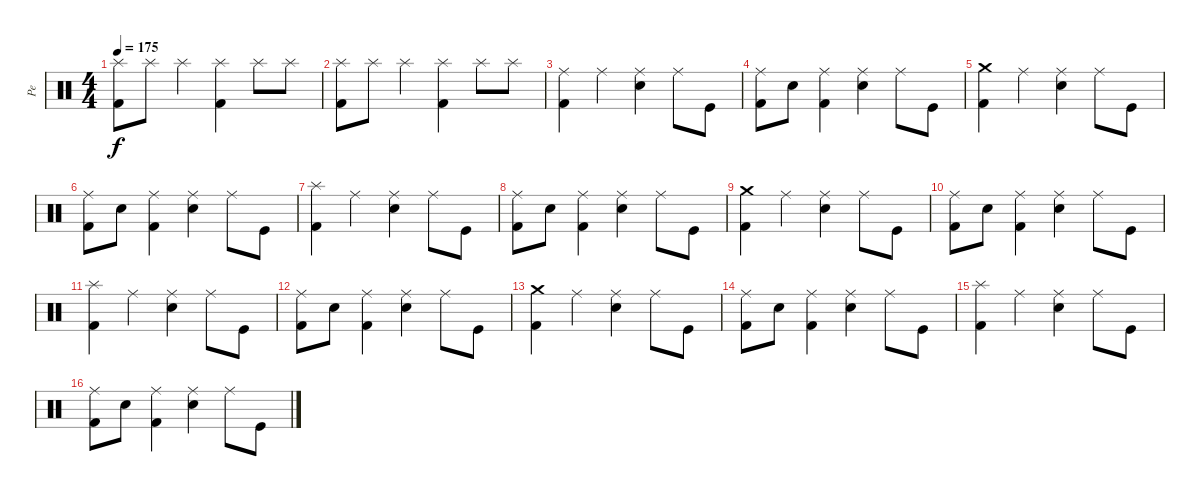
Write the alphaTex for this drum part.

\track ("Pe" "Pe") {instrument percussion}
\staff {score}
\articulation defaults
\ts (4 4)
\tempo 175
\clef neutral
\ks c
("Kick (hit) 2" "Splash (hit)").8{dy f} "Splash (hit)".8 "Splash (hit)".4 ("Kick (hit) 2" "Splash (hit)").4 "Splash (hit)".8 "Splash (hit)".8 |
("Kick (hit) 2" "Splash (hit)").8 "Splash (hit)".8 "Splash (hit)".4 ("Kick (hit) 2" "Splash (hit)").4 "Splash (hit)".8 "Splash (hit)".8 |
("Kick (hit) 2" "Ride (middle)").4{volume 13} "Ride (middle)".4 ("Electric Snare (hit)" "Ride (middle)").4 "Ride (middle)".8 "Kick (hit)".8 |
("Kick (hit) 2" "Ride (middle)").8 "Electric Snare (hit)".8 ("Kick (hit) 2" "Ride (middle)").4 ("Electric Snare (hit)" "Ride (middle)").4 "Ride (middle)".8 "Kick (hit)".8 |
("Kick (hit) 2" "Crash medium (hit)").4 "Ride (middle)".4 ("Electric Snare (hit)" "Ride (middle)").4 "Ride (middle)".8 "Kick (hit)".8 |
("Kick (hit) 2" "Ride (middle)").8 "Electric Snare (hit)".8 ("Kick (hit) 2" "Ride (middle)").4 ("Electric Snare (hit)" "Ride (middle)").4 "Ride (middle)".8 "Kick (hit)".8 |
("Kick (hit) 2" "Splash (hit)").4 "Ride (middle)".4 ("Electric Snare (hit)" "Ride (middle)").4 "Ride (middle)".8 "Kick (hit)".8 |
("Kick (hit) 2" "Ride (middle)").8 "Electric Snare (hit)".8 ("Kick (hit) 2" "Ride (middle)").4 ("Electric Snare (hit)" "Ride (middle)").4 "Ride (middle)".8 "Kick (hit)".8 |
("Kick (hit) 2" "Crash medium (hit)").4 "Ride (middle)".4 ("Electric Snare (hit)" "Ride (middle)").4 "Ride (middle)".8 "Kick (hit)".8 |
("Kick (hit) 2" "Ride (middle)").8 "Electric Snare (hit)".8 ("Kick (hit) 2" "Ride (middle)").4 ("Electric Snare (hit)" "Ride (middle)").4 "Ride (middle)".8 "Kick (hit)".8 |
("Kick (hit) 2" "Splash (hit)").4 "Ride (middle)".4 ("Electric Snare (hit)" "Ride (middle)").4 "Ride (middle)".8 "Kick (hit)".8 |
("Kick (hit) 2" "Ride (middle)").8 "Electric Snare (hit)".8 ("Kick (hit) 2" "Ride (middle)").4 ("Electric Snare (hit)" "Ride (middle)").4 "Ride (middle)".8 "Kick (hit)".8 |
("Kick (hit) 2" "Crash medium (hit)").4 "Ride (middle)".4 ("Electric Snare (hit)" "Ride (middle)").4 "Ride (middle)".8 "Kick (hit)".8 |
("Kick (hit) 2" "Ride (middle)").8 "Electric Snare (hit)".8 ("Kick (hit) 2" "Ride (middle)").4 ("Electric Snare (hit)" "Ride (middle)").4 "Ride (middle)".8 "Kick (hit)".8 |
("Kick (hit) 2" "Splash (hit)").4 "Ride (middle)".4 ("Electric Snare (hit)" "Ride (middle)").4 "Ride (middle)".8 "Kick (hit)".8 |
("Kick (hit) 2" "Ride (middle)").8 "Electric Snare (hit)".8 ("Kick (hit) 2" "Ride (middle)").4 ("Electric Snare (hit)" "Ride (middle)").4 "Ride (middle)".8 "Kick (hit)".8
